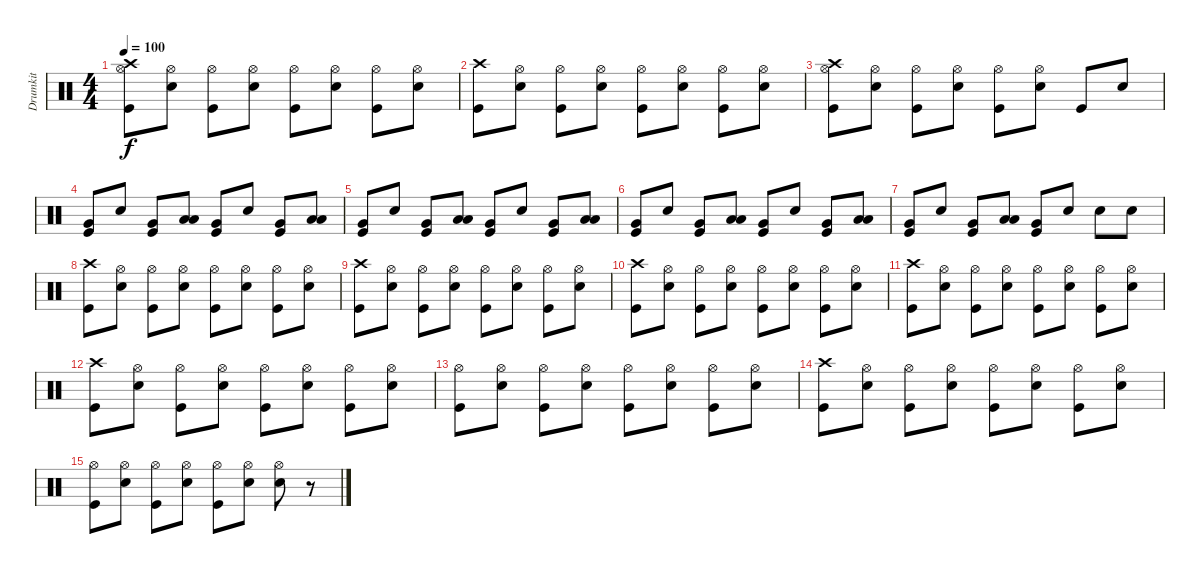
\track ("Drumkit" "Drumkit") {instrument percussion}
\staff {score}
\articulation defaults
\ts (4 4)
\tempo 100
\clef neutral
\ks c
("Hi-Hat (open)" "Kick (hit)" "Crash high (hit)").8{dy f} ("Hi-Hat (open)" "Snare (hit) 2").8 ("Hi-Hat (open)" "Kick (hit)").8 ("Hi-Hat (open)" "Snare (hit) 2").8 ("Hi-Hat (open)" "Kick (hit)").8 ("Hi-Hat (open)" "Snare (hit) 2").8 ("Hi-Hat (open)" "Kick (hit)").8 ("Hi-Hat (open)" "Snare (hit) 2").8 |
("Kick (hit)" "Crash high (hit)").8 ("Hi-Hat (open)" "Snare (hit) 2").8 ("Hi-Hat (open)" "Kick (hit)").8 ("Hi-Hat (open)" "Snare (hit) 2").8 ("Hi-Hat (open)" "Kick (hit)").8 ("Hi-Hat (open)" "Snare (hit) 2").8 ("Hi-Hat (open)" "Kick (hit)").8 ("Hi-Hat (open)" "Snare (hit) 2").8 |
("Hi-Hat (open)" "Kick (hit)" "Crash high (hit)").8 ("Hi-Hat (open)" "Snare (hit) 2").8 ("Hi-Hat (open)" "Kick (hit)").8 ("Hi-Hat (open)" "Snare (hit) 2").8 ("Hi-Hat (open)" "Kick (hit)").8 ("Hi-Hat (open)" "Snare (hit) 2").8 "Kick (hit)".8 "Snare (hit) 2".8 |
("Kick (hit)" "Very Low Tom (hit)").8 "Snare (hit) 2".8 ("Kick (hit)" "Very Low Tom (hit)").8 ("Low Floor Tom (hit)" "Low Tom (hit)").8 ("Kick (hit)" "Very Low Tom (hit)").8 "Snare (hit) 2".8 ("Kick (hit)" "Very Low Tom (hit)").8 ("Low Floor Tom (hit)" "Low Tom (hit)").8 |
("Kick (hit)" "Very Low Tom (hit)").8 "Snare (hit) 2".8 ("Kick (hit)" "Very Low Tom (hit)").8 ("Low Floor Tom (hit)" "Low Tom (hit)").8 ("Kick (hit)" "Very Low Tom (hit)").8 "Snare (hit) 2".8 ("Kick (hit)" "Very Low Tom (hit)").8 ("Low Floor Tom (hit)" "Low Tom (hit)").8 |
("Kick (hit)" "Very Low Tom (hit)").8 "Snare (hit) 2".8 ("Kick (hit)" "Very Low Tom (hit)").8 ("Low Floor Tom (hit)" "Low Tom (hit)").8 ("Kick (hit)" "Very Low Tom (hit)").8 "Snare (hit) 2".8 ("Kick (hit)" "Very Low Tom (hit)").8 ("Low Floor Tom (hit)" "Low Tom (hit)").8 |
("Kick (hit)" "Very Low Tom (hit)").8 "Snare (hit) 2".8 ("Kick (hit)" "Very Low Tom (hit)").8 ("Low Floor Tom (hit)" "Low Tom (hit)").8 ("Kick (hit)" "Very Low Tom (hit)").8 "Snare (hit) 2".8 "Snare (hit) 2".8 "Snare (hit) 2".8 |
("Kick (hit)" "Crash high (hit)").8 ("Hi-Hat (open)" "Snare (hit) 2").8 ("Hi-Hat (open)" "Kick (hit)").8 ("Hi-Hat (open)" "Snare (hit) 2").8 ("Hi-Hat (open)" "Kick (hit)").8 ("Hi-Hat (open)" "Snare (hit) 2").8 ("Hi-Hat (open)" "Kick (hit)").8 ("Hi-Hat (open)" "Snare (hit) 2").8 |
("Kick (hit)" "Crash high (hit)").8 ("Hi-Hat (open)" "Snare (hit) 2").8 ("Hi-Hat (open)" "Kick (hit)").8 ("Hi-Hat (open)" "Snare (hit) 2").8 ("Hi-Hat (open)" "Kick (hit)").8 ("Hi-Hat (open)" "Snare (hit) 2").8 ("Hi-Hat (open)" "Kick (hit)").8 ("Hi-Hat (open)" "Snare (hit) 2").8 |
("Kick (hit)" "Crash high (hit)").8 ("Hi-Hat (open)" "Snare (hit) 2").8 ("Hi-Hat (open)" "Kick (hit)").8 ("Hi-Hat (open)" "Snare (hit) 2").8 ("Hi-Hat (open)" "Kick (hit)").8 ("Hi-Hat (open)" "Snare (hit) 2").8 ("Hi-Hat (open)" "Kick (hit)").8 ("Hi-Hat (open)" "Snare (hit) 2").8 |
("Kick (hit)" "Crash high (hit)").8 ("Hi-Hat (open)" "Snare (hit) 2").8 ("Hi-Hat (open)" "Kick (hit)").8 ("Hi-Hat (open)" "Snare (hit) 2").8 ("Hi-Hat (open)" "Kick (hit)").8 ("Hi-Hat (open)" "Snare (hit) 2").8 ("Hi-Hat (open)" "Kick (hit)").8 ("Hi-Hat (open)" "Snare (hit) 2").8 |
("Kick (hit)" "Crash high (hit)").8 ("Hi-Hat (open)" "Snare (hit) 2").8 ("Hi-Hat (open)" "Kick (hit)").8 ("Hi-Hat (open)" "Snare (hit) 2").8 ("Hi-Hat (open)" "Kick (hit)").8 ("Hi-Hat (open)" "Snare (hit) 2").8 ("Hi-Hat (open)" "Kick (hit)").8 ("Hi-Hat (open)" "Snare (hit) 2").8 |
("Hi-Hat (open)" "Kick (hit)").8 ("Hi-Hat (open)" "Snare (hit) 2").8 ("Hi-Hat (open)" "Kick (hit)").8 ("Hi-Hat (open)" "Snare (hit) 2").8 ("Hi-Hat (open)" "Kick (hit)").8 ("Hi-Hat (open)" "Snare (hit) 2").8 ("Hi-Hat (open)" "Kick (hit)").8 ("Hi-Hat (open)" "Snare (hit) 2").8 |
("Kick (hit)" "Crash high (hit)").8 ("Hi-Hat (open)" "Snare (hit) 2").8 ("Hi-Hat (open)" "Kick (hit)").8 ("Hi-Hat (open)" "Snare (hit) 2").8 ("Hi-Hat (open)" "Kick (hit)").8 ("Hi-Hat (open)" "Snare (hit) 2").8 ("Hi-Hat (open)" "Kick (hit)").8 ("Hi-Hat (open)" "Snare (hit) 2").8 |
("Hi-Hat (open)" "Kick (hit)").8 ("Hi-Hat (open)" "Snare (hit) 2").8 ("Hi-Hat (open)" "Kick (hit)").8 ("Hi-Hat (open)" "Snare (hit) 2").8 ("Hi-Hat (open)" "Kick (hit)").8 ("Hi-Hat (open)" "Snare (hit) 2").8 ("Hi-Hat (open)" "Snare (hit) 2").8 r.8
